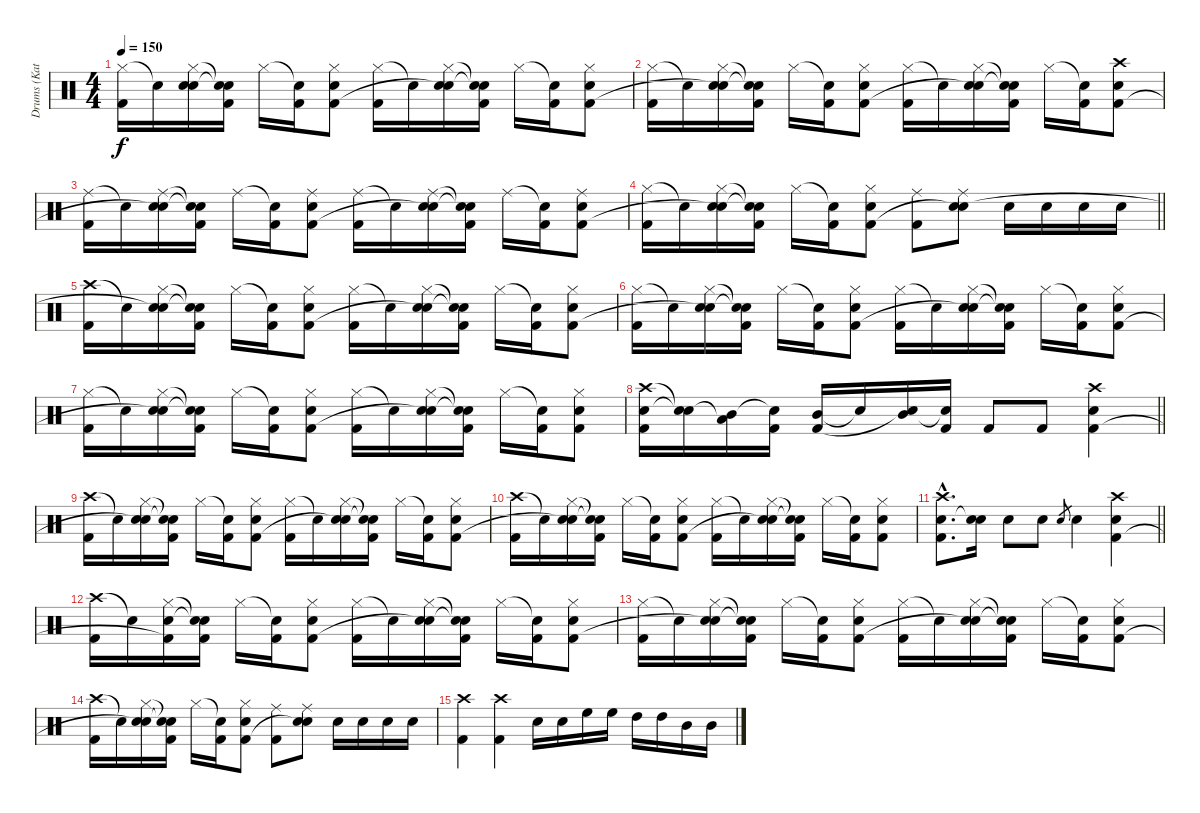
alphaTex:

\track ("Drums (Katsuji)" "Drums (Kat") {instrument percussion}
\staff {score}
\articulation defaults
\ts (4 4)
\tempo 150
\clef neutral
\ks c
("Hi-Hat (closed)" "Kick (hit) 2").16{dy f} "Snare (hit)"{t}.16 ("Hi-Hat (closed)" "Snare (hit) 2" "Snare (hit)"{t}).16 ("Snare (hit)"{t} "Snare (hit)"{t} "Kick (hit) 2").16 "Hi-Hat (closed)".16 ("Snare (hit)"{t} "Kick (hit) 2").16 ("Hi-Hat (closed)" "Snare (hit) 2" "Kick (hit) 2").8 ("Hi-Hat (closed)" "Kick (hit) 2").16 "Snare (hit)"{t}.16 ("Hi-Hat (closed)" "Snare (hit) 2" "Snare (hit)"{t}).16 ("Snare (hit)"{t} "Snare (hit)"{t} "Kick (hit) 2").16 "Hi-Hat (closed)".16 ("Snare (hit)"{t} "Kick (hit) 2").16 ("Hi-Hat (closed)" "Snare (hit) 2" "Kick (hit) 2").8 |
("Hi-Hat (closed)" "Kick (hit) 2").16 "Snare (hit)"{t}.16 ("Hi-Hat (closed)" "Snare (hit) 2" "Snare (hit)"{t}).16 ("Snare (hit)"{t} "Snare (hit)"{t} "Kick (hit) 2").16 "Hi-Hat (closed)".16 ("Snare (hit)"{t} "Kick (hit) 2").16 ("Hi-Hat (closed)" "Snare (hit) 2" "Kick (hit) 2").8 ("Hi-Hat (closed)" "Kick (hit) 2").16 "Snare (hit)"{t}.16 ("Hi-Hat (closed)" "Snare (hit) 2" "Snare (hit)"{t}).16 ("Snare (hit)"{t} "Snare (hit)"{t} "Kick (hit) 2").16 "Hi-Hat (closed)".16 ("Snare (hit)"{t} "Kick (hit) 2").16 ("Crash high (hit)" "Snare (hit) 2" "Kick (hit) 2").8 |
("Ride (middle)" "Kick (hit) 2").16 "Snare (hit)"{t}.16 ("Ride (middle)" "Snare (hit) 2" "Snare (hit)"{t}).16 ("Snare (hit)"{t} "Snare (hit)"{t} "Kick (hit) 2").16 "Ride (middle)".16 ("Snare (hit)"{t} "Kick (hit) 2").16 ("Ride (middle)" "Snare (hit) 2" "Kick (hit) 2").8 ("Ride (middle)" "Kick (hit) 2").16 "Snare (hit)"{t}.16 ("Ride (middle)" "Snare (hit) 2" "Snare (hit)"{t}).16 ("Snare (hit)"{t} "Snare (hit)"{t} "Kick (hit) 2").16 "Ride (middle)".16 ("Snare (hit)"{t} "Kick (hit) 2").16 ("Ride (middle)" "Snare (hit) 2" "Kick (hit) 2").8 |
\barLineRight lightlight
("Hi-Hat (closed)" "Kick (hit) 2").16 "Snare (hit)"{t}.16 ("Hi-Hat (closed)" "Snare (hit) 2" "Snare (hit)"{t}).16 ("Snare (hit)"{t} "Snare (hit)"{t} "Kick (hit) 2").16 "Hi-Hat (closed)".16 ("Snare (hit)"{t} "Kick (hit) 2").16 ("Hi-Hat (closed)" "Snare (hit) 2" "Kick (hit) 2").8 ("Ride (middle)" "Kick (hit) 2").8 ("Ride (middle)" "Snare (hit) 2" "Snare (hit)"{t}).8 "Snare (hit) 2".16 "Snare (hit) 2".16 "Snare (hit) 2".16 "Snare (hit) 2".16 |
("Crash high (hit)" "Kick (hit) 2").16 "Snare (hit)"{t}.16 ("Hi-Hat (closed)" "Snare (hit) 2" "Snare (hit)"{t}).16 ("Snare (hit)"{t} "Snare (hit)"{t} "Kick (hit) 2").16 "Hi-Hat (closed)".16 ("Snare (hit)"{t} "Kick (hit) 2").16 ("Hi-Hat (closed)" "Snare (hit) 2" "Kick (hit) 2").8 ("Hi-Hat (closed)" "Kick (hit) 2").16 "Snare (hit)"{t}.16 ("Hi-Hat (closed)" "Snare (hit) 2" "Snare (hit)"{t}).16 ("Snare (hit)"{t} "Snare (hit)"{t} "Kick (hit) 2").16 "Hi-Hat (closed)".16 ("Snare (hit)"{t} "Kick (hit) 2").16 ("Hi-Hat (closed)" "Snare (hit) 2" "Kick (hit) 2").8 |
("Hi-Hat (closed)" "Kick (hit) 2").16 "Snare (hit)"{t}.16 ("Hi-Hat (closed)" "Snare (hit) 2" "Snare (hit)"{t}).16 ("Snare (hit)"{t} "Snare (hit)"{t} "Kick (hit) 2").16 "Hi-Hat (closed)".16 ("Snare (hit)"{t} "Kick (hit) 2").16 ("Hi-Hat (closed)" "Snare (hit) 2" "Kick (hit) 2").8 ("Hi-Hat (closed)" "Kick (hit) 2").16 "Snare (hit)"{t}.16 ("Hi-Hat (closed)" "Snare (hit) 2" "Snare (hit)"{t}).16 ("Snare (hit)"{t} "Snare (hit)"{t} "Kick (hit) 2").16 "Hi-Hat (closed)".16 ("Snare (hit)"{t} "Kick (hit) 2").16 ("Hi-Hat (closed)" "Snare (hit) 2" "Kick (hit) 2").8 |
("Hi-Hat (closed)" "Kick (hit) 2").16 "Snare (hit)"{t}.16 ("Hi-Hat (closed)" "Snare (hit) 2" "Snare (hit)"{t}).16 ("Snare (hit)"{t} "Snare (hit)"{t} "Kick (hit) 2").16 "Hi-Hat (closed)".16 ("Snare (hit)"{t} "Kick (hit) 2").16 ("Hi-Hat (closed)" "Snare (hit) 2" "Kick (hit) 2").8 ("Hi-Hat (closed)" "Kick (hit) 2").16 "Snare (hit)"{t}.16 ("Hi-Hat (closed)" "Snare (hit) 2" "Snare (hit)"{t}).16 ("Snare (hit)"{t} "Snare (hit)"{t} "Kick (hit) 2").16 "Hi-Hat (closed)".16 ("Snare (hit)"{t} "Kick (hit) 2").16 ("Hi-Hat (closed)" "Snare (hit) 2" "Kick (hit) 2").8 |
\barLineRight lightlight
("Crash high (hit)" "Snare (hit) 2" "Kick (hit) 2").16 ("Snare (hit)"{t} "Snare (hit) 2"{t}).16 ("Mid Tom (hit)" "Low Floor Tom (hit)"{t}).16 ("Snare (hit)"{t} "Kick (hit) 2").16 ("Mid Tom (hit)" "Kick (hit) 2").16 "Snare (hit)"{t}.16 ("Mid Tom (hit)" "Snare (hit)"{t}).16 ("Snare (hit)"{t} "Kick (hit) 2").16 "Kick (hit) 2".8 "Kick (hit) 2".8 ("Crash high (hit)" "Snare (hit) 2" "Kick (hit) 2").4 |
("Crash high (hit)" "Kick (hit) 2").16 "Snare (hit)"{t}.16 ("Hi-Hat (closed)" "Snare (hit) 2" "Snare (hit)"{t}).16 ("Snare (hit)"{t} "Snare (hit)"{t} "Kick (hit) 2").16 "Hi-Hat (closed)".16 ("Snare (hit)"{t} "Kick (hit) 2").16 ("Hi-Hat (closed)" "Snare (hit) 2" "Kick (hit) 2").8 ("Hi-Hat (closed)" "Kick (hit) 2").16 "Snare (hit)"{t}.16 ("Hi-Hat (closed)" "Snare (hit) 2" "Snare (hit)"{t}).16 ("Snare (hit)"{t} "Snare (hit)"{t} "Kick (hit) 2").16 "Hi-Hat (closed)".16 ("Snare (hit)"{t} "Kick (hit) 2").16 ("Hi-Hat (closed)" "Snare (hit) 2" "Kick (hit) 2").8 |
("Crash high (hit)" "Kick (hit) 2").16 "Snare (hit)"{t}.16 ("Hi-Hat (closed)" "Snare (hit) 2" "Snare (hit)"{t}).16 ("Snare (hit)"{t} "Snare (hit)"{t} "Kick (hit) 2").16 "Hi-Hat (closed)".16 ("Snare (hit)"{t} "Kick (hit) 2").16 ("Hi-Hat (closed)" "Snare (hit) 2" "Kick (hit) 2").8 ("Hi-Hat (closed)" "Kick (hit) 2").16 "Snare (hit)"{t}.16 ("Hi-Hat (closed)" "Snare (hit) 2" "Snare (hit)"{t}).16 ("Snare (hit)"{t} "Snare (hit)"{t} "Kick (hit) 2").16 "Hi-Hat (closed)".16 ("Snare (hit)"{t} "Kick (hit) 2").16 ("Hi-Hat (closed)" "Snare (hit) 2" "Kick (hit) 2").8 |
\barLineRight lightlight
("Crash high (hit)"{hac} "Snare (hit) 2"{hac} "Kick (hit) 2"{hac}).8{d} ("Snare (hit) 2" "Snare (hit)"{t}).16 "Snare (hit) 2".8 "Snare (hit) 2".8 "Snare (hit) 2".8{gr} "Snare (hit) 2".4 ("Crash high (hit)" "Snare (hit) 2" "Kick (hit) 2").4 |
("Crash high (hit)" "Kick (hit) 2").16 "Snare (hit)"{t}.16 ("Hi-Hat (closed)" "Snare (hit) 2" "Kick (hit) 2"{t}).16 ("Snare (hit)"{t} "Snare (hit)"{t} "Kick (hit) 2").16 "Hi-Hat (closed)".16 ("Snare (hit)"{t} "Kick (hit) 2").16 ("Hi-Hat (closed)" "Snare (hit) 2" "Kick (hit) 2").8 ("Hi-Hat (closed)" "Kick (hit) 2").16 "Snare (hit)"{t}.16 ("Hi-Hat (closed)" "Snare (hit) 2" "Snare (hit)"{t}).16 ("Snare (hit)"{t} "Snare (hit)"{t} "Kick (hit) 2").16 "Hi-Hat (closed)".16 ("Snare (hit)"{t} "Kick (hit) 2").16 ("Hi-Hat (closed)" "Snare (hit) 2" "Kick (hit) 2").8 |
("Hi-Hat (closed)" "Kick (hit) 2").16 "Snare (hit)"{t}.16 ("Hi-Hat (closed)" "Snare (hit) 2" "Snare (hit)"{t}).16 ("Snare (hit)"{t} "Snare (hit)"{t} "Kick (hit) 2").16 "Hi-Hat (closed)".16 ("Snare (hit)"{t} "Kick (hit) 2").16 ("Hi-Hat (closed)" "Snare (hit) 2" "Kick (hit) 2").8 ("Hi-Hat (closed)" "Kick (hit) 2").16 "Snare (hit)"{t}.16 ("Hi-Hat (closed)" "Snare (hit) 2" "Snare (hit)"{t}).16 ("Snare (hit)"{t} "Snare (hit)"{t} "Kick (hit) 2").16 "Hi-Hat (closed)".16 ("Snare (hit)"{t} "Kick (hit) 2").16 ("Hi-Hat (closed)" "Snare (hit) 2" "Kick (hit) 2").8 |
("Crash high (hit)" "Kick (hit) 2").16 "Snare (hit)"{t}.16 ("Hi-Hat (closed)" "Snare (hit) 2" "Snare (hit)"{t}).16 ("Snare (hit)"{t} "Snare (hit)"{t} "Kick (hit) 2").16 "Hi-Hat (closed)".16 ("Snare (hit)"{t} "Kick (hit) 2").16 ("Hi-Hat (closed)" "Snare (hit) 2" "Kick (hit) 2").8 ("Ride (middle)" "Kick (hit) 2").8 ("Ride (middle)" "Snare (hit) 2" "Snare (hit)"{t}).8 "Snare (hit) 2".16 "Snare (hit) 2".16 "Snare (hit) 2".16 "Snare (hit) 2".16 |
("Crash high (hit)" "Kick (hit) 2").4 ("Crash high (hit)" "Kick (hit) 2").4 "Snare (hit) 2".16 "Snare (hit) 2".16 "High Floor Tom (hit)".16 "High Floor Tom (hit)".16 "High Tom (hit)".16 "High Tom (hit)".16 "Mid Tom (hit)".16 "Mid Tom (hit)".16
